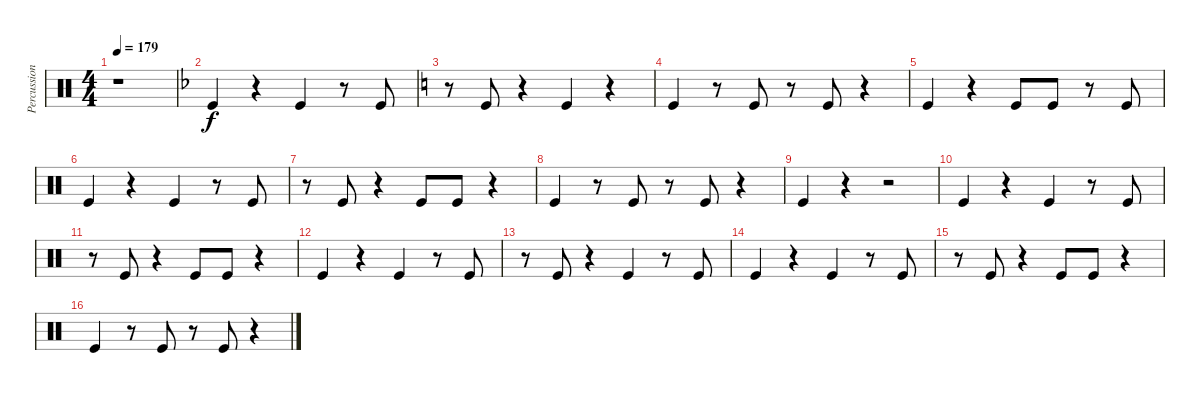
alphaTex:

\track ("Percussion 02" "Percussion") {instrument percussion}
\staff {score}
\articulation defaults
\ts (4 4)
\tempo 179
\clef neutral
\ks aminor
r.1{dy f} |
\ks dminor "Kick (hit)".4
r.4 "Kick (hit)".4 r.8 "Kick (hit)".8 |
\ks aminor
r.8 "Kick (hit)".8 r.4 "Kick (hit)".4 r.4 |
"Kick (hit)".4 r.8 "Kick (hit)".8 r.8 "Kick (hit)".8 r.4 |
"Kick (hit)".4 r.4 "Kick (hit)".8 "Kick (hit)".8 r.8 "Kick (hit)".8 |
"Kick (hit)".4 r.4 "Kick (hit)".4 r.8 "Kick (hit)".8 |
r.8 "Kick (hit)".8 r.4 "Kick (hit)".8 "Kick (hit)".8 r.4 |
"Kick (hit)".4 r.8 "Kick (hit)".8 r.8 "Kick (hit)".8 r.4 |
"Kick (hit)".4 r.4 r.2 |
"Kick (hit)".4 r.4 "Kick (hit)".4 r.8 "Kick (hit)".8 |
r.8 "Kick (hit)".8 r.4 "Kick (hit)".8 "Kick (hit)".8 r.4 |
"Kick (hit)".4 r.4 "Kick (hit)".4 r.8 "Kick (hit)".8 |
r.8 "Kick (hit)".8 r.4 "Kick (hit)".4 r.8 "Kick (hit)".8 |
"Kick (hit)".4 r.4 "Kick (hit)".4 r.8 "Kick (hit)".8 |
r.8 "Kick (hit)".8 r.4 "Kick (hit)".8 "Kick (hit)".8 r.4 |
"Kick (hit)".4 r.8 "Kick (hit)".8 r.8 "Kick (hit)".8 r.4
